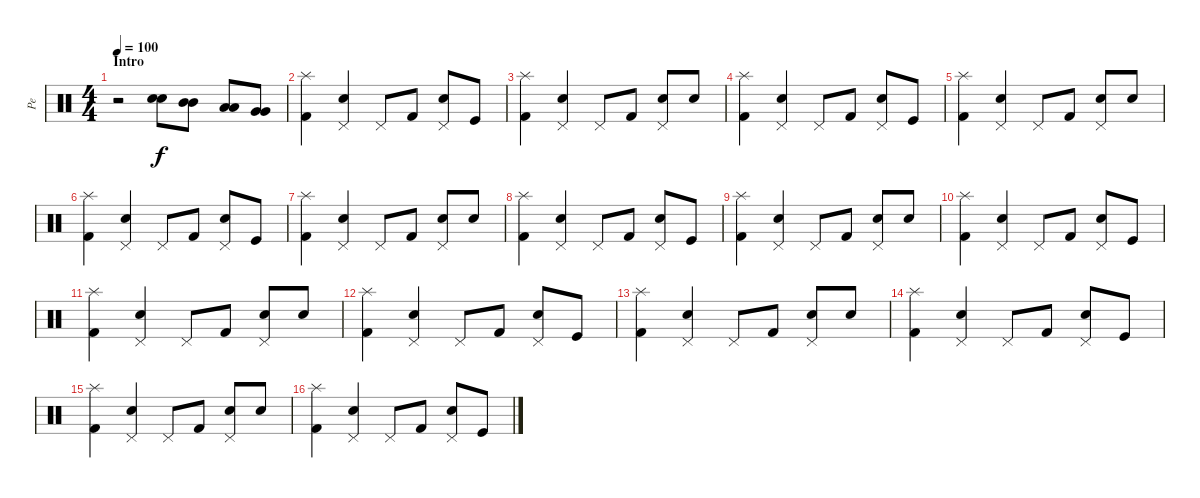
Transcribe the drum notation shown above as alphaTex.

\track ("Pe" "Pe") {instrument percussion}
\staff {score}
\articulation defaults
\ts (4 4)
\section ("" "Intro")
\tempo 100
\clef neutral
\ks c
r.2{dy f volume 15} ("Electric Snare (hit)" "Electric Snare (hit)").8 ("Mid Tom (hit)" "Mid Tom (hit)").8 ("Low Tom (hit)" "Low Tom (hit)").8 ("Very Low Tom (hit)" "Very Low Tom (hit)").8 |
("Kick (hit) 2" "Splash (hit)").4 ("Electric Snare (hit)" "Pedal Hi-Hat (hit)").4 "Pedal Hi-Hat (hit)".8 "Kick (hit) 2".8 ("Electric Snare (hit)" "Pedal Hi-Hat (hit)").8 "Kick (hit)".8 |
("Kick (hit) 2" "Splash (hit)").4 ("Electric Snare (hit)" "Pedal Hi-Hat (hit)").4 "Pedal Hi-Hat (hit)".8 "Kick (hit) 2".8 ("Electric Snare (hit)" "Pedal Hi-Hat (hit)").8 "Electric Snare (hit)".8 |
("Kick (hit) 2" "Splash (hit)").4 ("Electric Snare (hit)" "Pedal Hi-Hat (hit)").4 "Pedal Hi-Hat (hit)".8 "Kick (hit) 2".8 ("Electric Snare (hit)" "Pedal Hi-Hat (hit)").8 "Kick (hit)".8 |
("Kick (hit) 2" "Splash (hit)").4 ("Electric Snare (hit)" "Pedal Hi-Hat (hit)").4 "Pedal Hi-Hat (hit)".8 "Kick (hit) 2".8 ("Electric Snare (hit)" "Pedal Hi-Hat (hit)").8 "Electric Snare (hit)".8 |
("Kick (hit) 2" "Splash (hit)").4 ("Electric Snare (hit)" "Pedal Hi-Hat (hit)").4 "Pedal Hi-Hat (hit)".8 "Kick (hit) 2".8 ("Electric Snare (hit)" "Pedal Hi-Hat (hit)").8 "Kick (hit)".8 |
("Kick (hit) 2" "Splash (hit)").4 ("Electric Snare (hit)" "Pedal Hi-Hat (hit)").4 "Pedal Hi-Hat (hit)".8 "Kick (hit) 2".8 ("Electric Snare (hit)" "Pedal Hi-Hat (hit)").8 "Electric Snare (hit)".8 |
("Kick (hit) 2" "Splash (hit)").4 ("Electric Snare (hit)" "Pedal Hi-Hat (hit)").4 "Pedal Hi-Hat (hit)".8 "Kick (hit) 2".8 ("Electric Snare (hit)" "Pedal Hi-Hat (hit)").8 "Kick (hit)".8 |
("Kick (hit) 2" "Splash (hit)").4 ("Electric Snare (hit)" "Pedal Hi-Hat (hit)").4 "Pedal Hi-Hat (hit)".8 "Kick (hit) 2".8 ("Electric Snare (hit)" "Pedal Hi-Hat (hit)").8 "Electric Snare (hit)".8 |
("Kick (hit) 2" "Splash (hit)").4 ("Electric Snare (hit)" "Pedal Hi-Hat (hit)").4 "Pedal Hi-Hat (hit)".8 "Kick (hit) 2".8 ("Electric Snare (hit)" "Pedal Hi-Hat (hit)").8 "Kick (hit)".8 |
("Kick (hit) 2" "Splash (hit)").4 ("Electric Snare (hit)" "Pedal Hi-Hat (hit)").4 "Pedal Hi-Hat (hit)".8 "Kick (hit) 2".8 ("Electric Snare (hit)" "Pedal Hi-Hat (hit)").8 "Electric Snare (hit)".8 |
("Kick (hit) 2" "Splash (hit)").4 ("Electric Snare (hit)" "Pedal Hi-Hat (hit)").4 "Pedal Hi-Hat (hit)".8 "Kick (hit) 2".8 ("Electric Snare (hit)" "Pedal Hi-Hat (hit)").8 "Kick (hit)".8 |
("Kick (hit) 2" "Splash (hit)").4 ("Electric Snare (hit)" "Pedal Hi-Hat (hit)").4 "Pedal Hi-Hat (hit)".8 "Kick (hit) 2".8 ("Electric Snare (hit)" "Pedal Hi-Hat (hit)").8 "Electric Snare (hit)".8 |
("Kick (hit) 2" "Splash (hit)").4 ("Electric Snare (hit)" "Pedal Hi-Hat (hit)").4 "Pedal Hi-Hat (hit)".8 "Kick (hit) 2".8 ("Electric Snare (hit)" "Pedal Hi-Hat (hit)").8 "Kick (hit)".8 |
("Kick (hit) 2" "Splash (hit)").4 ("Electric Snare (hit)" "Pedal Hi-Hat (hit)").4 "Pedal Hi-Hat (hit)".8 "Kick (hit) 2".8 ("Electric Snare (hit)" "Pedal Hi-Hat (hit)").8 "Electric Snare (hit)".8 |
("Kick (hit) 2" "Splash (hit)").4 ("Electric Snare (hit)" "Pedal Hi-Hat (hit)").4 "Pedal Hi-Hat (hit)".8 "Kick (hit) 2".8 ("Electric Snare (hit)" "Pedal Hi-Hat (hit)").8 "Kick (hit)".8
